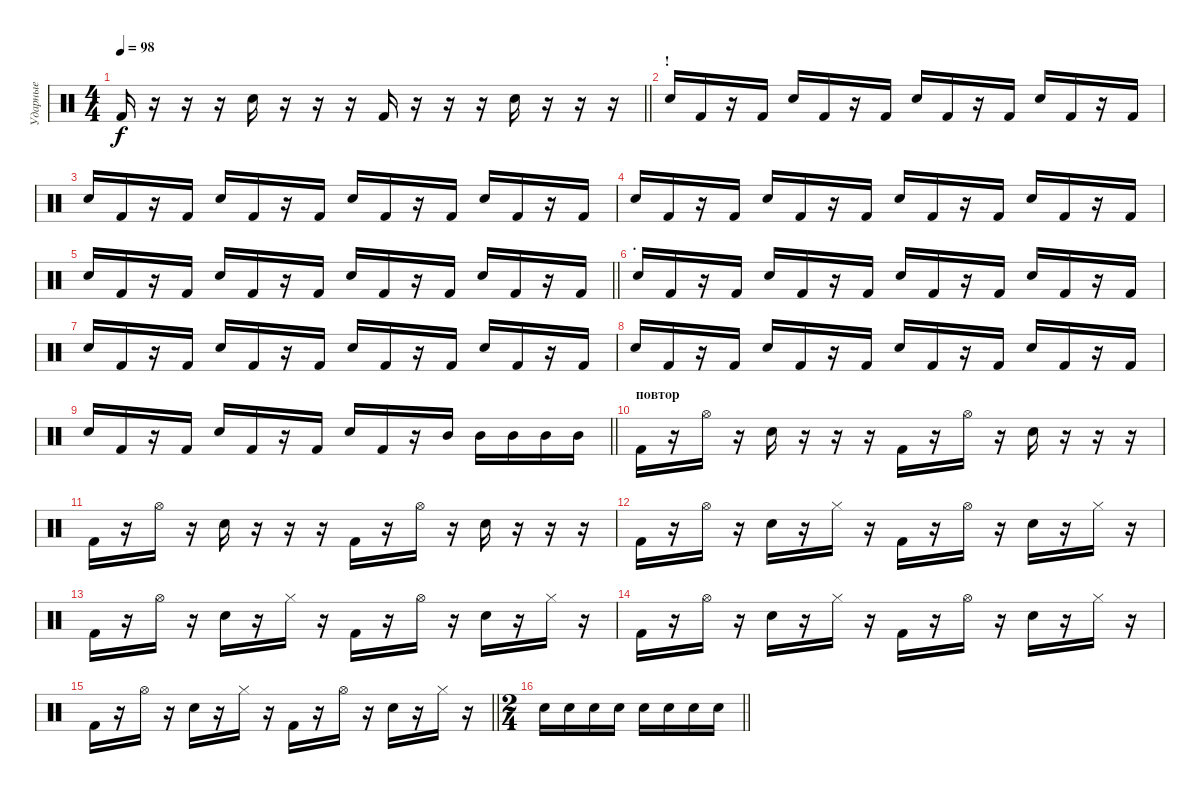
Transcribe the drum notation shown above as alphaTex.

\track ("Ударные" "Ударные") {instrument percussion}
\staff {score}
\articulation defaults
\ts (4 4)
\tempo 98
\clef neutral
\barLineRight lightlight
\ks c "Kick (hit) 2".16{dy f}
r.16 r.16 r.16 "Snare (hit) 2".16 r.16 r.16 r.16 "Kick (hit) 2".16 r.16 r.16 r.16 "Snare (hit) 2".16 r.16 r.16 r.16 |
\section ("" "!")
"Electric Snare (hit)".16 "Kick (hit) 2".16 r.16 "Kick (hit) 2".16 "Snare (hit) 2".16 "Kick (hit) 2".16 r.16 "Kick (hit) 2".16 "Electric Snare (hit)".16 "Kick (hit) 2".16 r.16 "Kick (hit) 2".16 "Snare (hit) 2".16 "Kick (hit) 2".16 r.16 "Kick (hit) 2".16 |
"Electric Snare (hit)".16 "Kick (hit) 2".16 r.16 "Kick (hit) 2".16 "Snare (hit) 2".16 "Kick (hit) 2".16 r.16 "Kick (hit) 2".16 "Electric Snare (hit)".16 "Kick (hit) 2".16 r.16 "Kick (hit) 2".16 "Snare (hit) 2".16 "Kick (hit) 2".16 r.16 "Kick (hit) 2".16 |
"Electric Snare (hit)".16 "Kick (hit) 2".16 r.16 "Kick (hit) 2".16 "Snare (hit) 2".16 "Kick (hit) 2".16 r.16 "Kick (hit) 2".16 "Electric Snare (hit)".16 "Kick (hit) 2".16 r.16 "Kick (hit) 2".16 "Snare (hit) 2".16 "Kick (hit) 2".16 r.16 "Kick (hit) 2".16 |
\barLineRight lightlight "Electric Snare (hit)".16 "Kick (hit) 2".16
r.16 "Kick (hit) 2".16 "Snare (hit) 2".16 "Kick (hit) 2".16 r.16 "Kick (hit) 2".16 "Electric Snare (hit)".16 "Kick (hit) 2".16 r.16 "Kick (hit) 2".16 "Snare (hit) 2".16 "Kick (hit) 2".16 r.16 "Kick (hit) 2".16 |
\section ("" ".")
"Electric Snare (hit)".16 "Kick (hit) 2".16 r.16 "Kick (hit) 2".16 "Snare (hit) 2".16 "Kick (hit) 2".16 r.16 "Kick (hit) 2".16 "Electric Snare (hit)".16 "Kick (hit) 2".16 r.16 "Kick (hit) 2".16 "Snare (hit) 2".16 "Kick (hit) 2".16 r.16 "Kick (hit) 2".16 |
"Electric Snare (hit)".16 "Kick (hit) 2".16 r.16 "Kick (hit) 2".16 "Snare (hit) 2".16 "Kick (hit) 2".16 r.16 "Kick (hit) 2".16 "Electric Snare (hit)".16 "Kick (hit) 2".16 r.16 "Kick (hit) 2".16 "Snare (hit) 2".16 "Kick (hit) 2".16 r.16 "Kick (hit) 2".16 |
"Electric Snare (hit)".16 "Kick (hit) 2".16 r.16 "Kick (hit) 2".16 "Snare (hit) 2".16 "Kick (hit) 2".16 r.16 "Kick (hit) 2".16 "Electric Snare (hit)".16 "Kick (hit) 2".16 r.16 "Kick (hit) 2".16 "Snare (hit) 2".16 "Kick (hit) 2".16 r.16 "Kick (hit) 2".16 |
\barLineRight lightlight "Electric Snare (hit)".16 "Kick (hit) 2".16
r.16 "Kick (hit) 2".16 "Snare (hit) 2".16 "Kick (hit) 2".16 r.16 "Kick (hit) 2".16 "Electric Snare (hit)".16 "Kick (hit) 2".16 r.16 "Mid Tom (hit)".16 "Mid Tom (hit)".16 "Mid Tom (hit)".16 "Mid Tom (hit)".16 "Mid Tom (hit)".16 |
\section ("" "повтор")
"Kick (hit) 2".16 r.16 "Hi-Hat (open)".16 r.16 "Snare (hit) 2".16 r.16 r.16 r.16 "Kick (hit) 2".16 r.16 "Hi-Hat (open)".16 r.16 "Snare (hit) 2".16 r.16 r.16 r.16 |
"Kick (hit) 2".16 r.16 "Hi-Hat (open)".16 r.16 "Snare (hit) 2".16 r.16 r.16 r.16 "Kick (hit) 2".16 r.16 "Hi-Hat (open)".16 r.16 "Snare (hit) 2".16 r.16 r.16 r.16 |
"Kick (hit) 2".16 r.16 "Hi-Hat (open)".16 r.16 "Snare (hit) 2".16 r.16 "Hi-Hat (closed)".16 r.16 "Kick (hit) 2".16 r.16 "Hi-Hat (open)".16 r.16 "Snare (hit) 2".16 r.16 "Hi-Hat (closed)".16 r.16 |
"Kick (hit) 2".16 r.16 "Hi-Hat (open)".16 r.16 "Snare (hit) 2".16 r.16 "Hi-Hat (closed)".16 r.16 "Kick (hit) 2".16 r.16 "Hi-Hat (open)".16 r.16 "Snare (hit) 2".16 r.16 "Hi-Hat (closed)".16 r.16 |
"Kick (hit) 2".16 r.16 "Hi-Hat (open)".16 r.16 "Snare (hit) 2".16 r.16 "Hi-Hat (closed)".16 r.16 "Kick (hit) 2".16 r.16 "Hi-Hat (open)".16 r.16 "Snare (hit) 2".16 r.16 "Hi-Hat (closed)".16 r.16 |
\barLineRight lightlight "Kick (hit) 2".16
r.16 "Hi-Hat (open)".16 r.16 "Snare (hit) 2".16 r.16 "Hi-Hat (closed)".16 r.16 "Kick (hit) 2".16 r.16 "Hi-Hat (open)".16 r.16 "Snare (hit) 2".16 r.16 "Hi-Hat (closed)".16 r.16 |
\ts (2 4)
\barLineRight lightlight "Snare (hit) 2".16 "Snare (hit) 2".16 "Snare (hit) 2".16 "Snare (hit) 2".16 "Snare (hit) 2".16 "Snare (hit) 2".16 "Snare (hit) 2".16 "Snare (hit) 2".16
